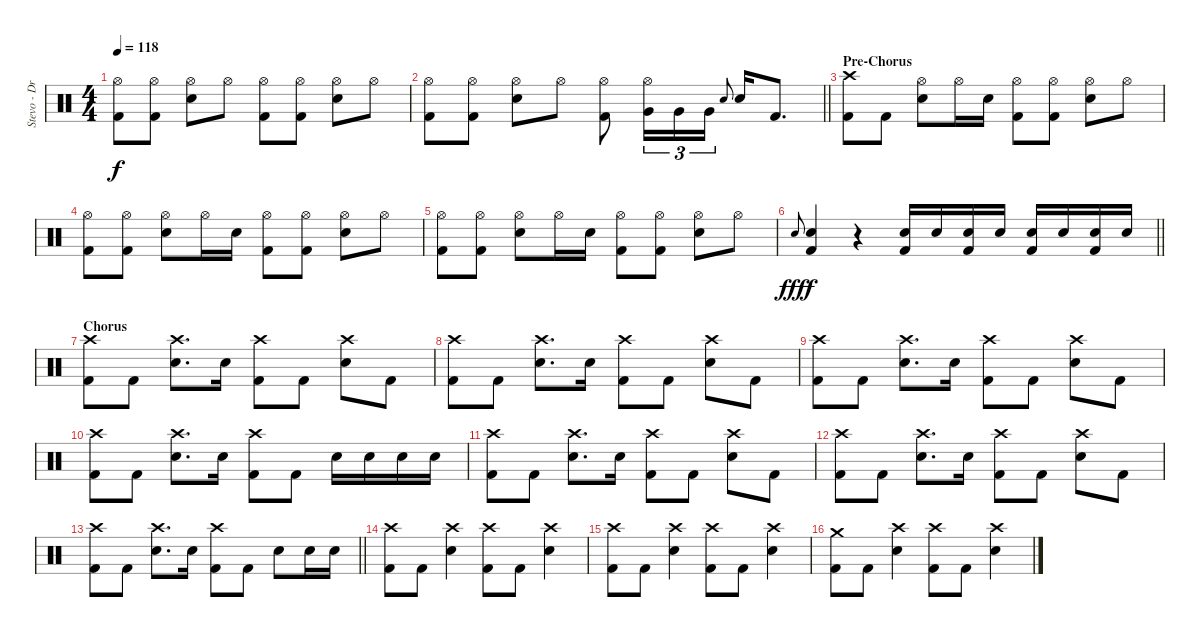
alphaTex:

\track ("Stevo - Drums" "Stevo - Dr") {instrument percussion}
\staff {score}
\articulation defaults
\ts (4 4)
\tempo 118
\clef neutral
\ks c
("Hi-Hat (open)" "Kick (hit) 2").8{dy f} ("Hi-Hat (open)" "Kick (hit) 2").8 ("Hi-Hat (open)" "Snare (hit) 2").8 "Hi-Hat (open)".8 ("Hi-Hat (open)" "Kick (hit) 2").8 ("Hi-Hat (open)" "Kick (hit) 2").8 ("Hi-Hat (open)" "Snare (hit) 2").8 "Hi-Hat (open)".8 |
\barLineRight lightlight
("Hi-Hat (open)" "Kick (hit) 2").8 ("Hi-Hat (open)" "Kick (hit) 2").8 ("Hi-Hat (open)" "Snare (hit) 2").8 "Hi-Hat (open)".8 ("Hi-Hat (open)" "Kick (hit) 2").8 ("Hi-Hat (open)" "Very Low Tom (hit)").16{tu (3 2)} "Very Low Tom (hit)".16{tu (3 2)} "Very Low Tom (hit)".16{tu (3 2)} "Snare (hit) 2".8{gr onbeat} "Snare (hit) 2".16 "Kick (hit) 2".8{d} |
\section ("" "Pre-Chorus")
("Crash high (hit)" "Kick (hit) 2").8 "Kick (hit) 2".8 ("Hi-Hat (open)" "Snare (hit) 2").8 "Hi-Hat (open)".16 "Snare (hit) 2".16 ("Hi-Hat (open)" "Kick (hit) 2").8 ("Hi-Hat (open)" "Kick (hit) 2").8 ("Hi-Hat (open)" "Snare (hit) 2").8 "Hi-Hat (open)".8 |
("Hi-Hat (open)" "Kick (hit) 2").8 ("Hi-Hat (open)" "Kick (hit) 2").8 ("Hi-Hat (open)" "Snare (hit) 2").8 "Hi-Hat (open)".16 "Snare (hit) 2".16 ("Hi-Hat (open)" "Kick (hit) 2").8 ("Hi-Hat (open)" "Kick (hit) 2").8 ("Hi-Hat (open)" "Snare (hit) 2").8 "Hi-Hat (open)".8 |
("Hi-Hat (open)" "Kick (hit) 2").8 ("Hi-Hat (open)" "Kick (hit) 2").8 ("Hi-Hat (open)" "Snare (hit) 2").8 "Hi-Hat (open)".16 "Snare (hit) 2".16 ("Hi-Hat (open)" "Kick (hit) 2").8 ("Hi-Hat (open)" "Kick (hit) 2").8 ("Hi-Hat (open)" "Snare (hit) 2").8 "Hi-Hat (open)".8 |
\barLineRight lightlight "Snare (hit) 2".8{gr onbeat dy fff}
("Snare (hit) 2" "Kick (hit) 2").4{dy f} r.4 ("Snare (hit) 2" "Kick (hit) 2").16 "Snare (hit) 2".16 ("Snare (hit) 2" "Kick (hit) 2").16 "Snare (hit) 2".16 ("Snare (hit) 2" "Kick (hit) 2").16 "Snare (hit) 2".16 ("Snare (hit) 2" "Kick (hit) 2").16 "Snare (hit) 2".16 |
\section ("" "Chorus")
("Crash high (hit)" "Kick (hit) 2").8 "Kick (hit) 2".8 ("Crash high (hit)" "Snare (hit) 2").8{d} "Snare (hit) 2".16 ("Crash high (hit)" "Kick (hit) 2").8 "Kick (hit) 2".8 ("Crash high (hit)" "Snare (hit) 2").8 "Kick (hit) 2".8 |
("Crash high (hit)" "Kick (hit) 2").8 "Kick (hit) 2".8 ("Crash high (hit)" "Snare (hit) 2").8{d} "Snare (hit) 2".16 ("Crash high (hit)" "Kick (hit) 2").8 "Kick (hit) 2".8 ("Crash high (hit)" "Snare (hit) 2").8 "Kick (hit) 2".8 |
("Crash high (hit)" "Kick (hit) 2").8 "Kick (hit) 2".8 ("Crash high (hit)" "Snare (hit) 2").8{d} "Snare (hit) 2".16 ("Crash high (hit)" "Kick (hit) 2").8 "Kick (hit) 2".8 ("Crash high (hit)" "Snare (hit) 2").8 "Kick (hit) 2".8 |
("Crash high (hit)" "Kick (hit) 2").8 "Kick (hit) 2".8 ("Crash high (hit)" "Snare (hit) 2").8{d} "Snare (hit) 2".16 ("Crash high (hit)" "Kick (hit) 2").8 "Kick (hit) 2".8 "Snare (hit) 2".16 "Snare (hit) 2".16 "Snare (hit) 2".16 "Snare (hit) 2".16 |
("Crash high (hit)" "Kick (hit) 2").8 "Kick (hit) 2".8 ("Crash high (hit)" "Snare (hit) 2").8{d} "Snare (hit) 2".16 ("Crash high (hit)" "Kick (hit) 2").8 "Kick (hit) 2".8 ("Crash high (hit)" "Snare (hit) 2").8 "Kick (hit) 2".8 |
("Crash high (hit)" "Kick (hit) 2").8 "Kick (hit) 2".8 ("Crash high (hit)" "Snare (hit) 2").8{d} "Snare (hit) 2".16 ("Crash high (hit)" "Kick (hit) 2").8 "Kick (hit) 2".8 ("Crash high (hit)" "Snare (hit) 2").8 "Kick (hit) 2".8 |
\barLineRight lightlight
("Crash high (hit)" "Kick (hit) 2").8 "Kick (hit) 2".8 ("Crash high (hit)" "Snare (hit) 2").8{d} "Snare (hit) 2".16 ("Crash high (hit)" "Kick (hit) 2").8 "Kick (hit) 2".8 "Snare (hit) 2".8 "Snare (hit) 2".16 "Snare (hit) 2".16 |
("Crash high (hit)" "Kick (hit) 2").8 "Kick (hit) 2".8 ("Crash high (hit)" "Snare (hit) 2").4 ("Crash high (hit)" "Kick (hit) 2").8 "Kick (hit) 2".8 ("Crash high (hit)" "Snare (hit) 2").4 |
("Crash high (hit)" "Kick (hit) 2").8 "Kick (hit) 2".8 ("Crash high (hit)" "Snare (hit) 2").4 ("Crash high (hit)" "Kick (hit) 2").8 "Kick (hit) 2".8 ("Crash high (hit)" "Snare (hit) 2").4 |
("Crash medium (hit)" "Kick (hit) 2").8 "Kick (hit) 2".8 ("Crash high (hit)" "Snare (hit) 2").4 ("Crash high (hit)" "Kick (hit) 2").8 "Kick (hit) 2".8 ("Crash high (hit)" "Snare (hit) 2").4
